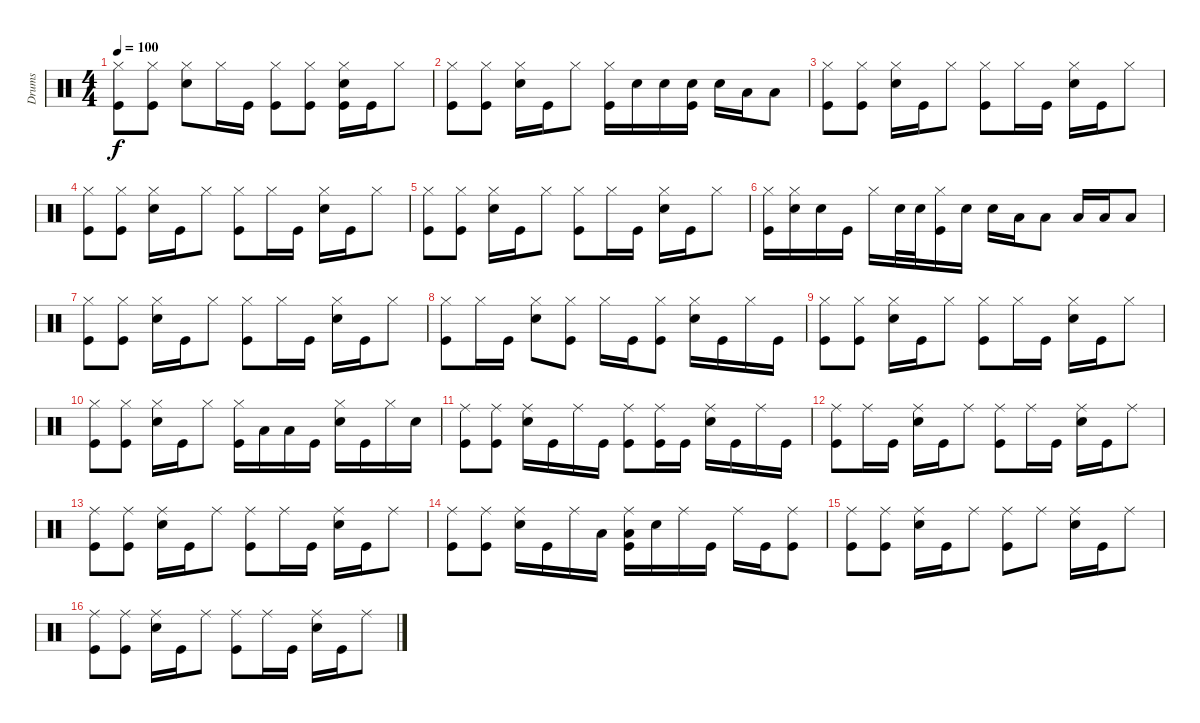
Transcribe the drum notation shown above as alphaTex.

\track ("Drums" "Drums") {instrument percussion}
\staff {score}
\articulation defaults
\ts (4 4)
\tempo 100
\clef neutral
\ks c
("Hi-Hat (closed)" "Kick (hit)").8{dy f} ("Hi-Hat (closed)" "Kick (hit)").8 ("Hi-Hat (closed)" "Snare (hit) 2").8 "Hi-Hat (closed)".16 "Kick (hit)".16 ("Hi-Hat (closed)" "Kick (hit)").8 ("Hi-Hat (closed)" "Kick (hit)").8 ("Hi-Hat (closed)" "Snare (hit) 2" "Kick (hit)").16 "Kick (hit)".16 "Hi-Hat (closed)".8 |
("Hi-Hat (closed)" "Kick (hit)").8 ("Hi-Hat (closed)" "Kick (hit)").8 ("Hi-Hat (closed)" "Snare (hit) 2").16 "Kick (hit)".16 "Hi-Hat (closed)".8 ("Hi-Hat (closed)" "Kick (hit)").16 "Snare (hit) 2".16 "Snare (hit) 2".16 ("Snare (hit) 2" "Kick (hit)").16 "Snare (hit) 2".16 "Low Floor Tom (hit)".16 "Low Floor Tom (hit)".8 |
("Hi-Hat (closed)" "Kick (hit)").8 ("Hi-Hat (closed)" "Kick (hit)").8 ("Hi-Hat (closed)" "Snare (hit) 2").16 "Kick (hit)".16 "Hi-Hat (closed)".8 ("Hi-Hat (closed)" "Kick (hit)").8 "Hi-Hat (closed)".16 "Kick (hit)".16 ("Hi-Hat (closed)" "Snare (hit) 2").16 "Kick (hit)".16 "Hi-Hat (closed)".8 |
("Hi-Hat (closed)" "Kick (hit)").8 ("Hi-Hat (closed)" "Kick (hit)").8 ("Hi-Hat (closed)" "Snare (hit) 2").16 "Kick (hit)".16 "Hi-Hat (closed)".8 ("Hi-Hat (closed)" "Kick (hit)").8 "Hi-Hat (closed)".16 "Kick (hit)".16 ("Hi-Hat (closed)" "Snare (hit) 2").16 "Kick (hit)".16 "Hi-Hat (closed)".8 |
("Hi-Hat (closed)" "Kick (hit)").8 ("Hi-Hat (closed)" "Kick (hit)").8 ("Hi-Hat (closed)" "Snare (hit) 2").16 "Kick (hit)".16 "Hi-Hat (closed)".8 ("Hi-Hat (closed)" "Kick (hit)").8 "Hi-Hat (closed)".16 "Kick (hit)".16 ("Hi-Hat (closed)" "Snare (hit) 2").16 "Kick (hit)".16 "Hi-Hat (closed)".8 |
("Hi-Hat (closed)" "Kick (hit)").16 ("Hi-Hat (closed)" "Snare (hit) 2").16 "Snare (hit) 2".16 "Kick (hit)".16 "Hi-Hat (closed)".16 "Snare (hit) 2".32 "Snare (hit) 2".32 ("Hi-Hat (closed)" "Kick (hit)").16 "Snare (hit) 2".16 "Snare (hit) 2".16 "Low Floor Tom (hit)".16 "Low Floor Tom (hit)".8 "Low Tom (hit)".16 "Low Tom (hit)".16 "Low Tom (hit)".8 |
("Hi-Hat (closed)" "Kick (hit)").8 ("Hi-Hat (closed)" "Kick (hit)").8 ("Hi-Hat (closed)" "Snare (hit) 2").16 "Kick (hit)".16 "Hi-Hat (closed)".8 ("Hi-Hat (closed)" "Kick (hit)").8 "Hi-Hat (closed)".16 "Kick (hit)".16 ("Hi-Hat (closed)" "Snare (hit) 2").16 "Kick (hit)".16 "Hi-Hat (closed)".8 |
("Hi-Hat (closed)" "Kick (hit)").8 "Hi-Hat (closed)".16 "Kick (hit)".16 ("Hi-Hat (closed)" "Snare (hit) 2").8 ("Hi-Hat (closed)" "Kick (hit)").8 "Hi-Hat (closed)".16 "Kick (hit)".16 ("Hi-Hat (closed)" "Kick (hit)").8 ("Hi-Hat (closed)" "Snare (hit) 2").16 "Kick (hit)".16 "Hi-Hat (closed)".16 "Kick (hit)".16 |
("Hi-Hat (closed)" "Kick (hit)").8 ("Hi-Hat (closed)" "Kick (hit)").8 ("Hi-Hat (closed)" "Snare (hit) 2").16 "Kick (hit)".16 "Hi-Hat (closed)".8 ("Hi-Hat (closed)" "Kick (hit)").8 "Hi-Hat (closed)".16 "Kick (hit)".16 ("Hi-Hat (closed)" "Snare (hit) 2").16 "Kick (hit)".16 "Hi-Hat (closed)".8 |
("Hi-Hat (closed)" "Kick (hit)").8 ("Hi-Hat (closed)" "Kick (hit)").8 ("Hi-Hat (closed)" "Snare (hit) 2").16 "Kick (hit)".16 "Hi-Hat (closed)".8 ("Hi-Hat (closed)" "Kick (hit)").16 "Low Floor Tom (hit)".16 "Low Floor Tom (hit)".16 "Kick (hit)".16 ("Hi-Hat (closed)" "Snare (hit) 2").16 "Kick (hit)".16 "Hi-Hat (closed)".16 "Snare (hit) 2".16 |
("Ride (middle)" "Kick (hit)").8 ("Ride (middle)" "Kick (hit)").8 ("Ride (middle)" "Snare (hit) 2").16 "Kick (hit)".16 "Ride (middle)".16 "Kick (hit)".16 ("Ride (middle)" "Kick (hit)").8 ("Ride (middle)" "Kick (hit)").16 "Kick (hit)".16 ("Ride (middle)" "Snare (hit) 2").16 "Kick (hit)".16 "Ride (middle)".16 "Kick (hit)".16 |
("Ride (middle)" "Kick (hit)").8 "Ride (middle)".16 "Kick (hit)".16 ("Ride (middle)" "Snare (hit) 2").16 "Kick (hit)".16 "Ride (middle)".8 ("Ride (middle)" "Kick (hit)").8 "Ride (middle)".16 "Kick (hit)".16 ("Ride (middle)" "Snare (hit) 2").16 "Kick (hit)".16 "Ride (middle)".8 |
("Ride (middle)" "Kick (hit)").8 ("Ride (middle)" "Kick (hit)").8 ("Ride (middle)" "Snare (hit) 2").16 "Kick (hit)".16 "Ride (middle)".8 ("Ride (middle)" "Kick (hit)").8 "Ride (middle)".16 "Kick (hit)".16 ("Ride (middle)" "Snare (hit) 2").16 "Kick (hit)".16 "Ride (middle)".8 |
("Ride (middle)" "Kick (hit)").8 ("Ride (middle)" "Kick (hit)").8 ("Ride (middle)" "Snare (hit) 2").16 "Kick (hit)".16 "Ride (middle)".16 "Low Floor Tom (hit)".16 ("Ride (middle)" "Low Floor Tom (hit)" "Kick (hit)").16 "Snare (hit) 2".16 "Ride (middle)".16 "Kick (hit)".16 "Ride (middle)".16 "Kick (hit)".16 ("Ride (middle)" "Kick (hit)").8 |
("Ride (middle)" "Kick (hit)").8 ("Ride (middle)" "Kick (hit)").8 ("Ride (middle)" "Snare (hit) 2").16 "Kick (hit)".16 "Ride (middle)".8 ("Ride (middle)" "Kick (hit)").8 "Ride (middle)".8 ("Ride (middle)" "Snare (hit) 2").16 "Kick (hit)".16 "Ride (middle)".8 |
("Ride (middle)" "Kick (hit)").8 ("Ride (middle)" "Kick (hit)").8 ("Ride (middle)" "Snare (hit) 2").16 "Kick (hit)".16 "Ride (middle)".8 ("Ride (middle)" "Kick (hit)").8 "Ride (middle)".16 "Kick (hit)".16 ("Ride (middle)" "Snare (hit) 2").16 "Kick (hit)".16 "Ride (middle)".8
